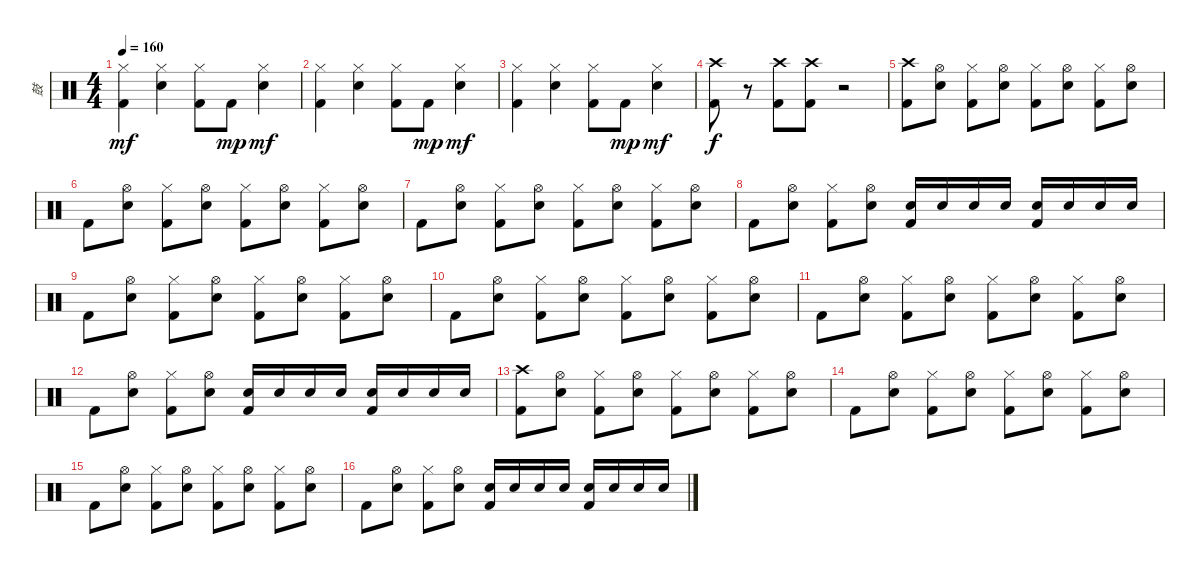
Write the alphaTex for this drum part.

\track ("鼓" "鼓") {instrument percussion}
\staff {score}
\articulation defaults
\ts (4 4)
\tempo 160
\clef neutral
\ks c
("Hi-Hat (closed)" "Kick (hit) 2").4{dy mf} ("Snare (hit) 2" "Hi-Hat (closed)").4 ("Hi-Hat (closed)" "Kick (hit) 2").8 "Kick (hit) 2".8{dy mp} ("Snare (hit) 2" "Hi-Hat (closed)").4{dy mf} |
("Hi-Hat (closed)" "Kick (hit) 2").4 ("Snare (hit) 2" "Hi-Hat (closed)").4 ("Hi-Hat (closed)" "Kick (hit) 2").8 "Kick (hit) 2".8{dy mp} ("Snare (hit) 2" "Hi-Hat (closed)").4{dy mf} |
("Hi-Hat (closed)" "Kick (hit) 2").4 ("Snare (hit) 2" "Hi-Hat (closed)").4 ("Hi-Hat (closed)" "Kick (hit) 2").8 "Kick (hit) 2".8{dy mp} ("Snare (hit) 2" "Hi-Hat (closed)").4{dy mf} |
("Crash high (hit)" "Kick (hit) 2").8{dy f} r.8 ("Crash high (hit)" "Kick (hit) 2").8 ("Crash high (hit)" "Kick (hit) 2").8 r.2 |
("Crash high (hit)" "Kick (hit) 2").8 ("Hi-Hat (open)" "Electric Snare (hit)").8 ("Hi-Hat (closed)" "Kick (hit) 2").8 ("Hi-Hat (open)" "Electric Snare (hit)").8 ("Hi-Hat (closed)" "Kick (hit) 2").8 ("Hi-Hat (open)" "Electric Snare (hit)").8 ("Hi-Hat (closed)" "Kick (hit) 2").8 ("Hi-Hat (open)" "Electric Snare (hit)").8 |
"Kick (hit) 2".8 ("Hi-Hat (open)" "Electric Snare (hit)").8 ("Hi-Hat (closed)" "Kick (hit) 2").8 ("Hi-Hat (open)" "Electric Snare (hit)").8 ("Hi-Hat (closed)" "Kick (hit) 2").8 ("Hi-Hat (open)" "Electric Snare (hit)").8 ("Hi-Hat (closed)" "Kick (hit) 2").8 ("Hi-Hat (open)" "Electric Snare (hit)").8 |
"Kick (hit) 2".8 ("Hi-Hat (open)" "Electric Snare (hit)").8 ("Hi-Hat (closed)" "Kick (hit) 2").8 ("Hi-Hat (open)" "Electric Snare (hit)").8 ("Hi-Hat (closed)" "Kick (hit) 2").8 ("Hi-Hat (open)" "Electric Snare (hit)").8 ("Hi-Hat (closed)" "Kick (hit) 2").8 ("Hi-Hat (open)" "Electric Snare (hit)").8 |
"Kick (hit) 2".8 ("Hi-Hat (open)" "Electric Snare (hit)").8 ("Hi-Hat (closed)" "Kick (hit) 2").8 ("Hi-Hat (open)" "Electric Snare (hit)").8 ("Electric Snare (hit)" "Kick (hit) 2").16 "Electric Snare (hit)".16 "Electric Snare (hit)".16 "Electric Snare (hit)".16 ("Electric Snare (hit)" "Kick (hit) 2").16 "Electric Snare (hit)".16 "Electric Snare (hit)".16 "Electric Snare (hit)".16 |
"Kick (hit) 2".8 ("Hi-Hat (open)" "Electric Snare (hit)").8 ("Hi-Hat (closed)" "Kick (hit) 2").8 ("Hi-Hat (open)" "Electric Snare (hit)").8 ("Hi-Hat (closed)" "Kick (hit) 2").8 ("Hi-Hat (open)" "Electric Snare (hit)").8 ("Hi-Hat (closed)" "Kick (hit) 2").8 ("Hi-Hat (open)" "Electric Snare (hit)").8 |
"Kick (hit) 2".8 ("Hi-Hat (open)" "Electric Snare (hit)").8 ("Hi-Hat (closed)" "Kick (hit) 2").8 ("Hi-Hat (open)" "Electric Snare (hit)").8 ("Hi-Hat (closed)" "Kick (hit) 2").8 ("Hi-Hat (open)" "Electric Snare (hit)").8 ("Hi-Hat (closed)" "Kick (hit) 2").8 ("Hi-Hat (open)" "Electric Snare (hit)").8 |
"Kick (hit) 2".8 ("Hi-Hat (open)" "Electric Snare (hit)").8 ("Hi-Hat (closed)" "Kick (hit) 2").8 ("Hi-Hat (open)" "Electric Snare (hit)").8 ("Hi-Hat (closed)" "Kick (hit) 2").8 ("Hi-Hat (open)" "Electric Snare (hit)").8 ("Hi-Hat (closed)" "Kick (hit) 2").8 ("Hi-Hat (open)" "Electric Snare (hit)").8 |
"Kick (hit) 2".8 ("Hi-Hat (open)" "Electric Snare (hit)").8 ("Hi-Hat (closed)" "Kick (hit) 2").8 ("Hi-Hat (open)" "Electric Snare (hit)").8 ("Electric Snare (hit)" "Kick (hit) 2").16 "Electric Snare (hit)".16 "Electric Snare (hit)".16 "Electric Snare (hit)".16 ("Electric Snare (hit)" "Kick (hit) 2").16 "Electric Snare (hit)".16 "Electric Snare (hit)".16 "Electric Snare (hit)".16 |
("Crash high (hit)" "Kick (hit) 2").8 ("Hi-Hat (open)" "Electric Snare (hit)").8 ("Hi-Hat (closed)" "Kick (hit) 2").8 ("Hi-Hat (open)" "Electric Snare (hit)").8 ("Hi-Hat (closed)" "Kick (hit) 2").8 ("Hi-Hat (open)" "Electric Snare (hit)").8 ("Hi-Hat (closed)" "Kick (hit) 2").8 ("Hi-Hat (open)" "Electric Snare (hit)").8 |
"Kick (hit) 2".8 ("Hi-Hat (open)" "Electric Snare (hit)").8 ("Hi-Hat (closed)" "Kick (hit) 2").8 ("Hi-Hat (open)" "Electric Snare (hit)").8 ("Hi-Hat (closed)" "Kick (hit) 2").8 ("Hi-Hat (open)" "Electric Snare (hit)").8 ("Hi-Hat (closed)" "Kick (hit) 2").8 ("Hi-Hat (open)" "Electric Snare (hit)").8 |
"Kick (hit) 2".8 ("Hi-Hat (open)" "Electric Snare (hit)").8 ("Hi-Hat (closed)" "Kick (hit) 2").8 ("Hi-Hat (open)" "Electric Snare (hit)").8 ("Hi-Hat (closed)" "Kick (hit) 2").8 ("Hi-Hat (open)" "Electric Snare (hit)").8 ("Hi-Hat (closed)" "Kick (hit) 2").8 ("Hi-Hat (open)" "Electric Snare (hit)").8 |
"Kick (hit) 2".8 ("Hi-Hat (open)" "Electric Snare (hit)").8 ("Hi-Hat (closed)" "Kick (hit) 2").8 ("Hi-Hat (open)" "Electric Snare (hit)").8 ("Electric Snare (hit)" "Kick (hit) 2").16 "Electric Snare (hit)".16 "Electric Snare (hit)".16 "Electric Snare (hit)".16 ("Electric Snare (hit)" "Kick (hit) 2").16 "Electric Snare (hit)".16 "Electric Snare (hit)".16 "Electric Snare (hit)".16
